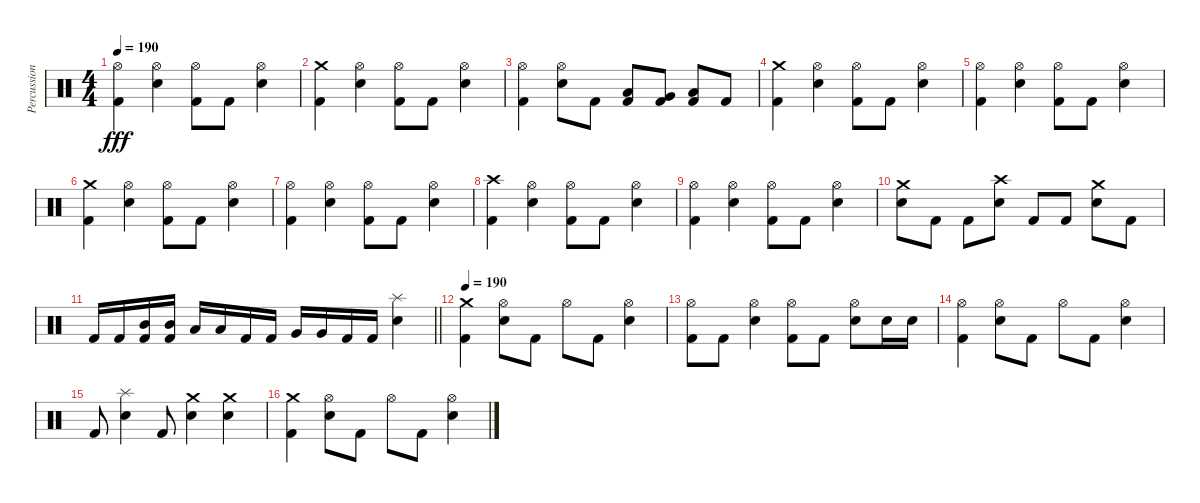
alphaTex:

\track ("Percussion" "Percussion") {instrument percussion}
\staff {score}
\articulation defaults
\ts (4 4)
\tempo 190
\clef neutral
\ks c
("Hi-Hat (open)" "Kick (hit) 2").4{dy fff} ("Hi-Hat (open)" "Electric Snare (hit)").4 ("Hi-Hat (open)" "Kick (hit) 2").8 "Kick (hit) 2".8 ("Hi-Hat (open)" "Electric Snare (hit)").4 |
("Crash medium (hit)" "Kick (hit) 2").4 ("Hi-Hat (open)" "Electric Snare (hit)").4 ("Hi-Hat (open)" "Kick (hit) 2").8 "Kick (hit) 2".8 ("Hi-Hat (open)" "Electric Snare (hit)").4 |
("Hi-Hat (open)" "Kick (hit) 2").4 ("Hi-Hat (open)" "Electric Snare (hit)").8 "Kick (hit) 2".8 ("Kick (hit) 2" "Low Tom (hit)").8 ("Kick (hit) 2" "Very Low Tom (hit)").8 ("Kick (hit) 2" "Low Floor Tom (hit)").8 "Kick (hit) 2".8 |
("Crash medium (hit)" "Kick (hit) 2").4 ("Hi-Hat (open)" "Electric Snare (hit)").4 ("Hi-Hat (open)" "Kick (hit) 2").8 "Kick (hit) 2".8 ("Hi-Hat (open)" "Electric Snare (hit)").4 |
("Hi-Hat (open)" "Kick (hit) 2").4 ("Hi-Hat (open)" "Electric Snare (hit)").4 ("Hi-Hat (open)" "Kick (hit) 2").8 "Kick (hit) 2".8 ("Hi-Hat (open)" "Electric Snare (hit)").4 |
("Crash medium (hit)" "Kick (hit) 2").4 ("Hi-Hat (open)" "Electric Snare (hit)").4 ("Hi-Hat (open)" "Kick (hit) 2").8 "Kick (hit) 2".8 ("Hi-Hat (open)" "Electric Snare (hit)").4 |
("Hi-Hat (open)" "Kick (hit) 2").4 ("Hi-Hat (open)" "Electric Snare (hit)").4 ("Hi-Hat (open)" "Kick (hit) 2").8 "Kick (hit) 2".8 ("Hi-Hat (open)" "Electric Snare (hit)").4 |
("Crash high (hit)" "Kick (hit) 2").4 ("Hi-Hat (open)" "Electric Snare (hit)").4 ("Hi-Hat (open)" "Kick (hit) 2").8 "Kick (hit) 2".8 ("Hi-Hat (open)" "Electric Snare (hit)").4 |
("Hi-Hat (open)" "Kick (hit) 2").4 ("Hi-Hat (open)" "Electric Snare (hit)").4 ("Hi-Hat (open)" "Kick (hit) 2").8 "Kick (hit) 2".8 ("Hi-Hat (open)" "Electric Snare (hit)").4 |
("Crash medium (hit)" "Electric Snare (hit)").8 "Kick (hit) 2".8 "Kick (hit) 2".8 ("Crash high (hit)" "Electric Snare (hit)").8 "Kick (hit) 2".8 "Kick (hit) 2".8 ("Crash medium (hit)" "Electric Snare (hit)").8 "Kick (hit) 2".8 |
\barLineRight lightlight "Kick (hit) 2".16 "Kick (hit) 2".16
("Mid Tom (hit)" "Kick (hit) 2").16 ("Mid Tom (hit)" "Kick (hit) 2").16 "Low Tom (hit)".16 "Low Tom (hit)".16 "Kick (hit) 2".16 "Kick (hit) 2".16 "Very Low Tom (hit)".16 "Very Low Tom (hit)".16 "Kick (hit) 2".16 "Kick (hit) 2".16 ("Splash (hit)" "Electric Snare (hit)").4 |
\tempo 190
("Crash medium (hit)" "Kick (hit) 2").4 ("Hi-Hat (open)" "Electric Snare (hit)").8 "Kick (hit) 2".8 "Hi-Hat (open)".8 "Kick (hit) 2".8 ("Hi-Hat (open)" "Electric Snare (hit)").4 |
("Hi-Hat (open)" "Kick (hit) 2").8 "Kick (hit) 2".8 ("Hi-Hat (open)" "Electric Snare (hit)").4 ("Hi-Hat (open)" "Kick (hit) 2").8 "Kick (hit) 2".8 ("Hi-Hat (open)" "Electric Snare (hit)").8 "Electric Snare (hit)".16 "Electric Snare (hit)".16 |
("Hi-Hat (open)" "Kick (hit) 2").4 ("Hi-Hat (open)" "Electric Snare (hit)").8 "Kick (hit) 2".8 "Hi-Hat (open)".8 "Kick (hit) 2".8 ("Hi-Hat (open)" "Electric Snare (hit)").4 |
"Kick (hit) 2".8 ("Splash (hit)" "Electric Snare (hit)").4 "Kick (hit) 2".8 ("Crash medium (hit)" "Electric Snare (hit)").4 ("Crash medium (hit)" "Electric Snare (hit)").4 |
("Crash medium (hit)" "Kick (hit) 2").4 ("Hi-Hat (open)" "Electric Snare (hit)").8 "Kick (hit) 2".8 "Hi-Hat (open)".8 "Kick (hit) 2".8 ("Hi-Hat (open)" "Electric Snare (hit)").4
